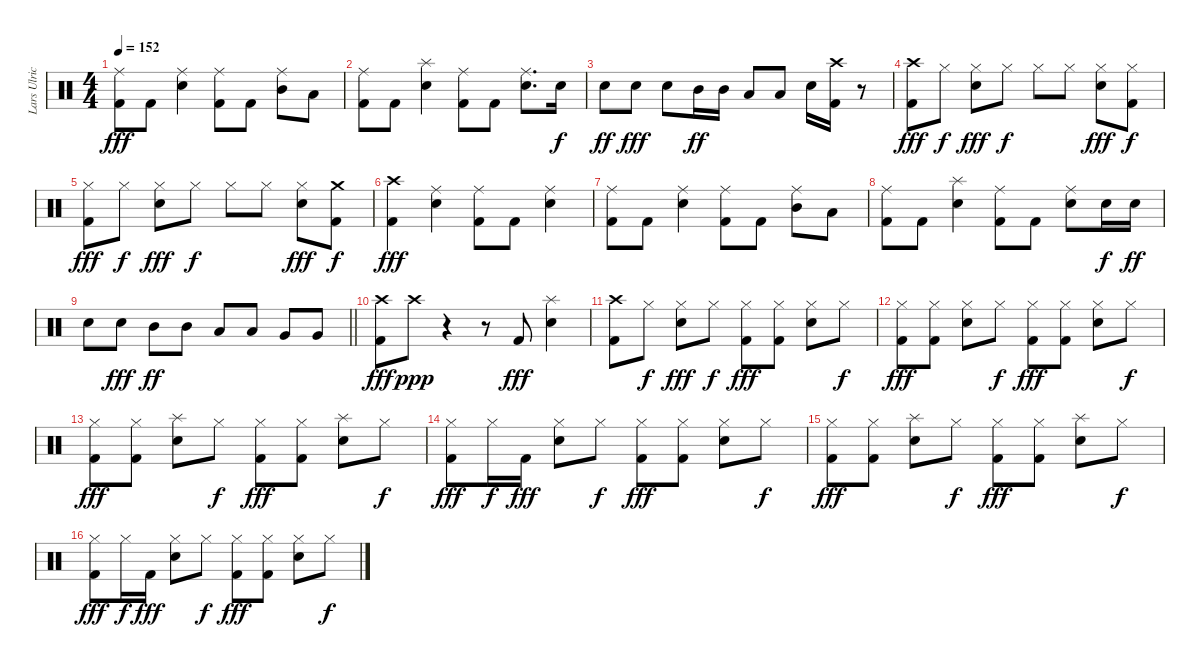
\track ("Lars Ulrich" "Lars Ulric") {instrument percussion}
\staff {score}
\articulation defaults
\ts (4 4)
\tempo 152
\clef neutral
\ks c
("Ride (middle)" "Kick (hit) 2").8{dy fff} "Kick (hit) 2".8 ("Ride (middle)" "Snare (hit) 2").4 ("Ride (middle)" "Kick (hit) 2").8 "Kick (hit) 2".8 ("Ride (middle)" "Mid Tom (hit)").8 "Low Tom (hit)".8 |
("Ride (middle)" "Kick (hit) 2").8 "Kick (hit) 2".8 ("Splash (hit)" "Snare (hit) 2").4 ("Ride (middle)" "Kick (hit) 2").8 "Kick (hit) 2".8 ("Ride (middle)" "Snare (hit) 2").8{d} "Snare (hit) 2".16{dy f} |
"Snare (hit) 2".8{dy ff} "Snare (hit) 2".8{dy fff} "Snare (hit) 2".8 "Mid Tom (hit)".16{dy ff} "Mid Tom (hit)".16 "Low Tom (hit)".8 "Low Tom (hit)".8 "Snare (hit) 2".16 ("Crash high (hit)" "Kick (hit) 2").16 r.8 |
("Crash high (hit)" "Kick (hit) 2").8{dy fff} "Hi-Hat (closed)".8{dy f} ("Hi-Hat (closed)" "Snare (hit) 2").8{dy fff} "Hi-Hat (closed)".8{dy f} "Hi-Hat (closed)".8 "Hi-Hat (closed)".8 ("Hi-Hat (closed)" "Snare (hit) 2").8{dy fff} ("Hi-Hat (closed)" "Kick (hit) 2").8{dy f} |
("Hi-Hat (closed)" "Kick (hit) 2").8{dy fff} "Hi-Hat (closed)".8{dy f} ("Hi-Hat (closed)" "Snare (hit) 2").8{dy fff} "Hi-Hat (closed)".8{dy f} "Hi-Hat (closed)".8 "Hi-Hat (closed)".8 ("Hi-Hat (closed)" "Snare (hit) 2").8{dy fff} ("Crash medium (hit)" "Kick (hit) 2").8{dy f} |
("Crash high (hit)" "Kick (hit) 2").4{dy fff} ("Ride (middle)" "Snare (hit) 2").4 ("Ride (middle)" "Kick (hit) 2").8 "Kick (hit) 2".8 ("Ride (middle)" "Snare (hit) 2").4 |
("Ride (middle)" "Kick (hit) 2").8 "Kick (hit) 2".8 ("Ride (middle)" "Snare (hit) 2").4 ("Ride (middle)" "Kick (hit) 2").8 "Kick (hit) 2".8 ("Ride (middle)" "Mid Tom (hit)").8 "Low Tom (hit)".8 |
("Ride (middle)" "Kick (hit) 2").8 "Kick (hit) 2".8 ("Splash (hit)" "Snare (hit) 2").4 ("Ride (middle)" "Kick (hit) 2").8 "Kick (hit) 2".8 ("Ride (middle)" "Snare (hit) 2").8 "Snare (hit) 2".16{dy f} "Snare (hit) 2".16{dy ff} |
\barLineRight lightlight "Snare (hit) 2".8 "Snare (hit) 2".8{dy fff} "Mid Tom (hit)".8{dy ff} "Mid Tom (hit)".8 "Low Tom (hit)".8 "Low Tom (hit)".8 "Very Low Tom (hit)".8 "Very Low Tom (hit)".8
|
("Crash high (hit)" "Kick (hit) 2").8{dy fff} "Crash high (hit)".8{dy ppp} r.4 r.8 "Kick (hit) 2".8{dy fff} ("Splash (hit)" "Snare (hit) 2").4 |
("Crash high (hit)" "Kick (hit) 2").8 "Hi-Hat (closed)".8{dy f} ("Hi-Hat (closed)" "Snare (hit) 2").8{dy fff} "Hi-Hat (closed)".8{dy f} ("Hi-Hat (closed)" "Kick (hit) 2").8{dy fff} ("Hi-Hat (closed)" "Kick (hit) 2").8 ("Hi-Hat (closed)" "Snare (hit) 2").8 "Hi-Hat (closed)".8{dy f} |
("Hi-Hat (closed)" "Kick (hit) 2").8{dy fff} ("Hi-Hat (closed)" "Kick (hit) 2").8 ("Hi-Hat (closed)" "Snare (hit) 2").8 "Hi-Hat (closed)".8{dy f} ("Hi-Hat (closed)" "Kick (hit) 2").8{dy fff} ("Hi-Hat (closed)" "Kick (hit) 2").8 ("Hi-Hat (closed)" "Snare (hit) 2").8 "Hi-Hat (closed)".8{dy f} |
("Hi-Hat (closed)" "Kick (hit) 2").8{dy fff} ("Hi-Hat (closed)" "Kick (hit) 2").8 ("Splash (hit)" "Snare (hit) 2").8 "Hi-Hat (closed)".8{dy f} ("Hi-Hat (closed)" "Kick (hit) 2").8{dy fff} ("Hi-Hat (closed)" "Kick (hit) 2").8 ("Splash (hit)" "Snare (hit) 2").8 "Hi-Hat (closed)".8{dy f} |
("Hi-Hat (closed)" "Kick (hit) 2").8{dy fff} "Hi-Hat (closed)".16{dy f} "Kick (hit) 2".16{dy fff} ("Hi-Hat (closed)" "Snare (hit) 2").8 "Hi-Hat (closed)".8{dy f} ("Hi-Hat (closed)" "Kick (hit) 2").8{dy fff} ("Hi-Hat (closed)" "Kick (hit) 2").8 ("Hi-Hat (closed)" "Snare (hit) 2").8 "Hi-Hat (closed)".8{dy f} |
("Hi-Hat (closed)" "Kick (hit) 2").8{dy fff} ("Hi-Hat (closed)" "Kick (hit) 2").8 ("Splash (hit)" "Snare (hit) 2").8 "Hi-Hat (closed)".8{dy f} ("Hi-Hat (closed)" "Kick (hit) 2").8{dy fff} ("Hi-Hat (closed)" "Kick (hit) 2").8 ("Splash (hit)" "Snare (hit) 2").8 "Hi-Hat (closed)".8{dy f} |
("Hi-Hat (closed)" "Kick (hit) 2").8{dy fff} "Hi-Hat (closed)".16{dy f} "Kick (hit) 2".16{dy fff} ("Hi-Hat (closed)" "Snare (hit) 2").8 "Hi-Hat (closed)".8{dy f} ("Hi-Hat (closed)" "Kick (hit) 2").8{dy fff} ("Hi-Hat (closed)" "Kick (hit) 2").8 ("Hi-Hat (closed)" "Snare (hit) 2").8 "Hi-Hat (closed)".8{dy f}
